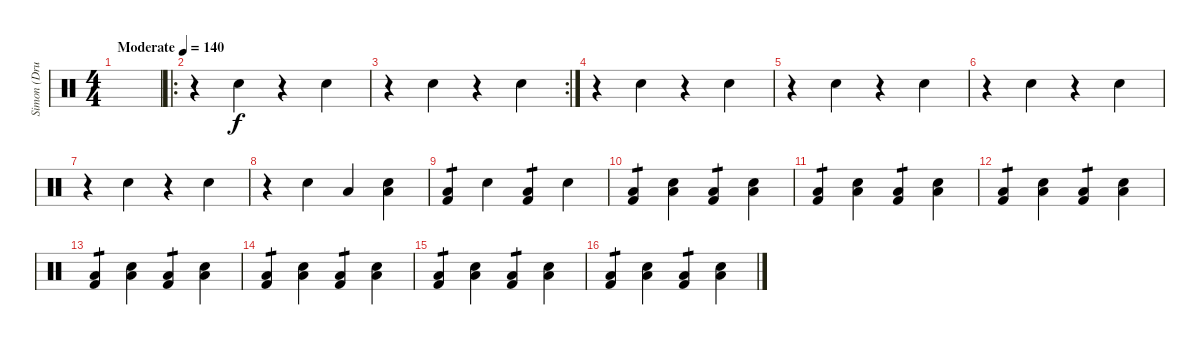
\track ("Simon (Drums)" "Simon (Dru") {instrument percussion}
\staff {score}
\articulation defaults
\ts (4 4)
\tempo (140 "Moderate")
\clef neutral
\ks c
|
\ro
r.4 "Snare (hit) 2".4 r.4 "Snare (hit) 2".4 |
\rc 2
r.4 "Snare (hit) 2".4 r.4 "Snare (hit) 2".4 |
r.4 "Snare (hit) 2".4 r.4 "Snare (hit) 2".4 |
r.4 "Snare (hit) 2".4 r.4 "Snare (hit) 2".4 |
r.4 "Snare (hit) 2".4 r.4 "Snare (hit) 2".4 |
r.4 "Snare (hit) 2".4 r.4 "Snare (hit) 2".4 |
r.4 "Snare (hit) 2".4 "Low Floor Tom (hit)".4 ("Snare (hit) 2" "Low Floor Tom (hit)").4 |
("Kick (hit) 2" "Low Floor Tom (hit)").4{tp 1} "Snare (hit) 2".4 ("Kick (hit) 2" "Low Floor Tom (hit)").4{tp 1} "Snare (hit) 2".4 |
("Kick (hit) 2" "Low Floor Tom (hit)").4{tp 1} ("Snare (hit) 2" "Low Floor Tom (hit)").4 ("Kick (hit) 2" "Low Floor Tom (hit)").4{tp 1} ("Snare (hit) 2" "Low Floor Tom (hit)").4 |
("Kick (hit) 2" "Low Floor Tom (hit)").4{tp 1} ("Snare (hit) 2" "Low Floor Tom (hit)").4 ("Kick (hit) 2" "Low Floor Tom (hit)").4{tp 1} ("Snare (hit) 2" "Low Floor Tom (hit)").4 |
("Kick (hit) 2" "Low Floor Tom (hit)").4{tp 1} ("Snare (hit) 2" "Low Floor Tom (hit)").4 ("Kick (hit) 2" "Low Floor Tom (hit)").4{tp 1} ("Snare (hit) 2" "Low Floor Tom (hit)").4 |
("Kick (hit) 2" "Low Floor Tom (hit)").4{tp 1} ("Snare (hit) 2" "Low Floor Tom (hit)").4 ("Kick (hit) 2" "Low Floor Tom (hit)").4{tp 1} ("Snare (hit) 2" "Low Floor Tom (hit)").4 |
("Kick (hit) 2" "Low Floor Tom (hit)").4{tp 1} ("Snare (hit) 2" "Low Floor Tom (hit)").4 ("Kick (hit) 2" "Low Floor Tom (hit)").4{tp 1} ("Snare (hit) 2" "Low Floor Tom (hit)").4 |
("Kick (hit) 2" "Low Floor Tom (hit)").4{tp 1} ("Snare (hit) 2" "Low Floor Tom (hit)").4 ("Kick (hit) 2" "Low Floor Tom (hit)").4{tp 1} ("Snare (hit) 2" "Low Floor Tom (hit)").4 |
("Kick (hit) 2" "Low Floor Tom (hit)").4{tp 1} ("Snare (hit) 2" "Low Floor Tom (hit)").4 ("Kick (hit) 2" "Low Floor Tom (hit)").4{tp 1} ("Snare (hit) 2" "Low Floor Tom (hit)").4
